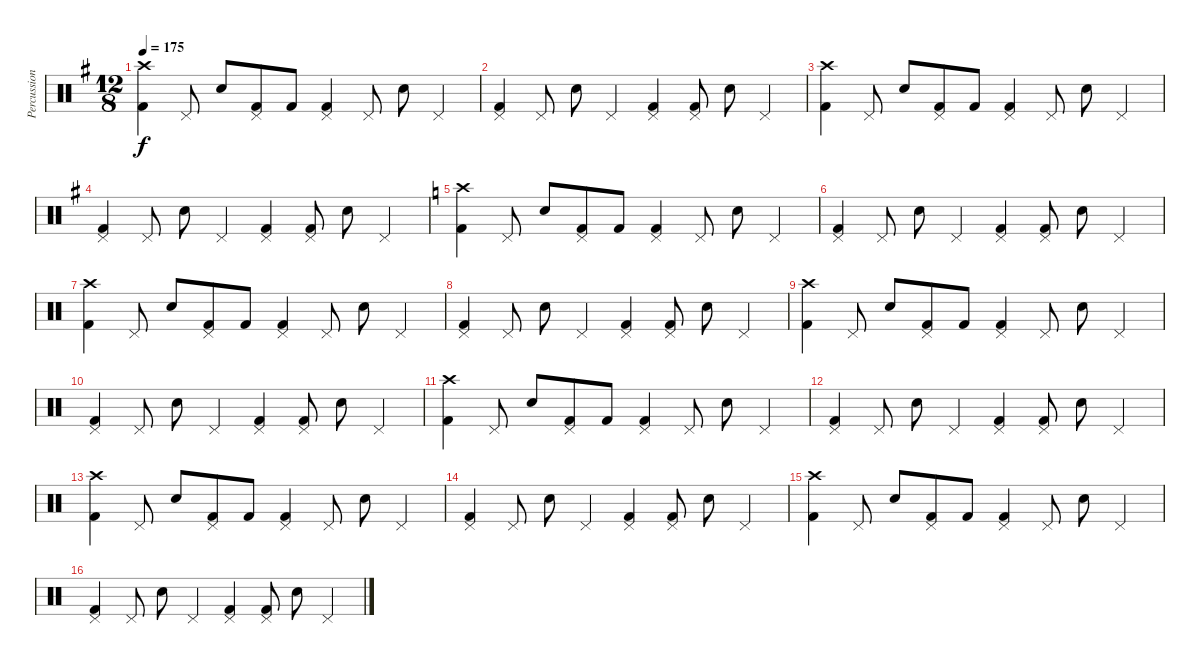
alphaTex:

\track ("Percussion" "Percussion") {instrument percussion}
\staff {score}
\articulation defaults
\ts (12 8)
\tempo 175
\clef neutral
\ks g
("Kick (hit) 2" "Crash high (hit)").4{dy f} "Pedal Hi-Hat (hit)".8 "Snare (hit) 2".8 ("Kick (hit) 2" "Pedal Hi-Hat (hit)").8 "Kick (hit) 2".8 ("Kick (hit) 2" "Pedal Hi-Hat (hit)").4 "Pedal Hi-Hat (hit)".8 "Snare (hit) 2".8 "Pedal Hi-Hat (hit)".4 |
("Kick (hit) 2" "Pedal Hi-Hat (hit)").4 "Pedal Hi-Hat (hit)".8 "Snare (hit) 2".8 "Pedal Hi-Hat (hit)".4 ("Kick (hit) 2" "Pedal Hi-Hat (hit)").4 ("Kick (hit) 2" "Pedal Hi-Hat (hit)").8 "Snare (hit) 2".8 "Pedal Hi-Hat (hit)".4 |
("Kick (hit) 2" "Crash high (hit)").4 "Pedal Hi-Hat (hit)".8 "Snare (hit) 2".8 ("Kick (hit) 2" "Pedal Hi-Hat (hit)").8 "Kick (hit) 2".8 ("Kick (hit) 2" "Pedal Hi-Hat (hit)").4 "Pedal Hi-Hat (hit)".8 "Snare (hit) 2".8 "Pedal Hi-Hat (hit)".4 |
("Kick (hit) 2" "Pedal Hi-Hat (hit)").4 "Pedal Hi-Hat (hit)".8 "Snare (hit) 2".8 "Pedal Hi-Hat (hit)".4 ("Kick (hit) 2" "Pedal Hi-Hat (hit)").4 ("Kick (hit) 2" "Pedal Hi-Hat (hit)").8 "Snare (hit) 2".8 "Pedal Hi-Hat (hit)".4 |
\ks c
("Kick (hit) 2" "Crash high (hit)").4 "Pedal Hi-Hat (hit)".8 "Snare (hit) 2".8 ("Kick (hit) 2" "Pedal Hi-Hat (hit)").8 "Kick (hit) 2".8 ("Kick (hit) 2" "Pedal Hi-Hat (hit)").4 "Pedal Hi-Hat (hit)".8 "Snare (hit) 2".8 "Pedal Hi-Hat (hit)".4 |
("Kick (hit) 2" "Pedal Hi-Hat (hit)").4 "Pedal Hi-Hat (hit)".8 "Snare (hit) 2".8 "Pedal Hi-Hat (hit)".4 ("Kick (hit) 2" "Pedal Hi-Hat (hit)").4 ("Kick (hit) 2" "Pedal Hi-Hat (hit)").8 "Snare (hit) 2".8 "Pedal Hi-Hat (hit)".4 |
("Kick (hit) 2" "Crash high (hit)").4 "Pedal Hi-Hat (hit)".8 "Snare (hit) 2".8 ("Kick (hit) 2" "Pedal Hi-Hat (hit)").8 "Kick (hit) 2".8 ("Kick (hit) 2" "Pedal Hi-Hat (hit)").4 "Pedal Hi-Hat (hit)".8 "Snare (hit) 2".8 "Pedal Hi-Hat (hit)".4 |
("Kick (hit) 2" "Pedal Hi-Hat (hit)").4 "Pedal Hi-Hat (hit)".8 "Snare (hit) 2".8 "Pedal Hi-Hat (hit)".4 ("Kick (hit) 2" "Pedal Hi-Hat (hit)").4 ("Kick (hit) 2" "Pedal Hi-Hat (hit)").8 "Snare (hit) 2".8 "Pedal Hi-Hat (hit)".4 |
("Kick (hit) 2" "Crash high (hit)").4 "Pedal Hi-Hat (hit)".8 "Snare (hit) 2".8 ("Kick (hit) 2" "Pedal Hi-Hat (hit)").8 "Kick (hit) 2".8 ("Kick (hit) 2" "Pedal Hi-Hat (hit)").4 "Pedal Hi-Hat (hit)".8 "Snare (hit) 2".8 "Pedal Hi-Hat (hit)".4 |
("Kick (hit) 2" "Pedal Hi-Hat (hit)").4 "Pedal Hi-Hat (hit)".8 "Snare (hit) 2".8 "Pedal Hi-Hat (hit)".4 ("Kick (hit) 2" "Pedal Hi-Hat (hit)").4 ("Kick (hit) 2" "Pedal Hi-Hat (hit)").8 "Snare (hit) 2".8 "Pedal Hi-Hat (hit)".4 |
("Kick (hit) 2" "Crash high (hit)").4 "Pedal Hi-Hat (hit)".8 "Snare (hit) 2".8 ("Kick (hit) 2" "Pedal Hi-Hat (hit)").8 "Kick (hit) 2".8 ("Kick (hit) 2" "Pedal Hi-Hat (hit)").4 "Pedal Hi-Hat (hit)".8 "Snare (hit) 2".8 "Pedal Hi-Hat (hit)".4 |
("Kick (hit) 2" "Pedal Hi-Hat (hit)").4 "Pedal Hi-Hat (hit)".8 "Snare (hit) 2".8 "Pedal Hi-Hat (hit)".4 ("Kick (hit) 2" "Pedal Hi-Hat (hit)").4 ("Kick (hit) 2" "Pedal Hi-Hat (hit)").8 "Snare (hit) 2".8 "Pedal Hi-Hat (hit)".4 |
("Kick (hit) 2" "Crash high (hit)").4 "Pedal Hi-Hat (hit)".8 "Snare (hit) 2".8 ("Kick (hit) 2" "Pedal Hi-Hat (hit)").8 "Kick (hit) 2".8 ("Kick (hit) 2" "Pedal Hi-Hat (hit)").4 "Pedal Hi-Hat (hit)".8 "Snare (hit) 2".8 "Pedal Hi-Hat (hit)".4 |
("Kick (hit) 2" "Pedal Hi-Hat (hit)").4 "Pedal Hi-Hat (hit)".8 "Snare (hit) 2".8 "Pedal Hi-Hat (hit)".4 ("Kick (hit) 2" "Pedal Hi-Hat (hit)").4 ("Kick (hit) 2" "Pedal Hi-Hat (hit)").8 "Snare (hit) 2".8 "Pedal Hi-Hat (hit)".4 |
("Kick (hit) 2" "Crash high (hit)").4 "Pedal Hi-Hat (hit)".8 "Snare (hit) 2".8 ("Kick (hit) 2" "Pedal Hi-Hat (hit)").8 "Kick (hit) 2".8 ("Kick (hit) 2" "Pedal Hi-Hat (hit)").4 "Pedal Hi-Hat (hit)".8 "Snare (hit) 2".8 "Pedal Hi-Hat (hit)".4 |
("Kick (hit) 2" "Pedal Hi-Hat (hit)").4 "Pedal Hi-Hat (hit)".8 "Snare (hit) 2".8 "Pedal Hi-Hat (hit)".4 ("Kick (hit) 2" "Pedal Hi-Hat (hit)").4 ("Kick (hit) 2" "Pedal Hi-Hat (hit)").8 "Snare (hit) 2".8 "Pedal Hi-Hat (hit)".4
